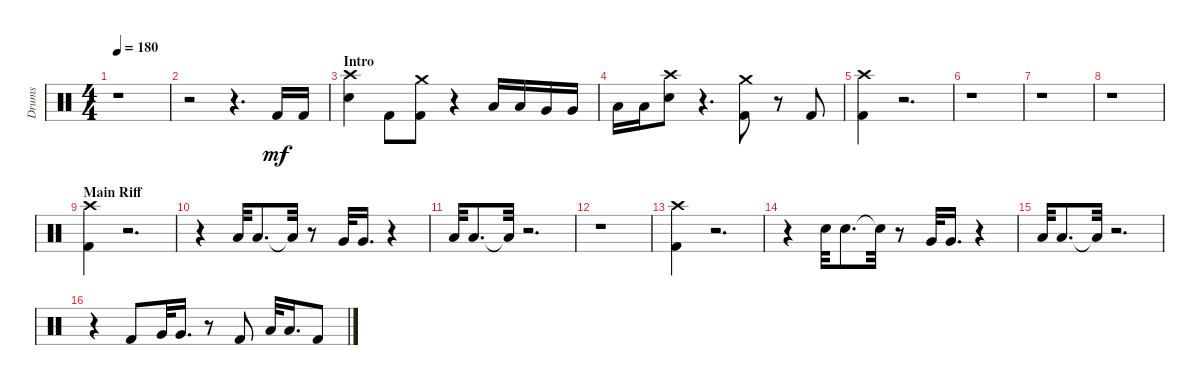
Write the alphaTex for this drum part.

\track ("Drums" "Drums") {instrument percussion}
\staff {score}
\articulation defaults
\ts (4 4)
\tempo 180
\clef neutral
\ks aminor
r.1{dy mf} |
r.2 r.4{d} "Kick (hit) 2".16 "Kick (hit) 2".16 |
\section ("" "Intro")
("Snare (hit) 2" "Crash high (hit)").4 "Kick (hit) 2".8 ("Kick (hit) 2" "Crash medium (hit)").8 r.4 "Low Tom (hit)".16 "Low Tom (hit)".16 "Very Low Tom (hit)".16 "Very Low Tom (hit)".16 |
"Low Floor Tom (hit)".16 "Low Floor Tom (hit)".16 ("Snare (hit) 2" "Crash high (hit)").8 r.4{d} ("Kick (hit) 2" "Crash medium (hit)").8 r.8 "Kick (hit) 2".8 |
("Crash high (hit)" "Kick (hit) 2").4 r.2{d} |
r.1 |
r.1 |
r.1 |
\section ("" "Main Riff")
("Kick (hit) 2" "Crash high (hit)").4 r.2{d} |
r.4 "Low Tom (hit)".32 "Low Tom (hit)".8{d} "Low Tom (hit)"{t}.32 r.8 "Very Low Tom (hit)".32 "Very Low Tom (hit)".16{d} r.4 |
"Low Floor Tom (hit)".32 "Low Floor Tom (hit)".8{d} "Low Floor Tom (hit)"{t}.32 r.2{d} |
r.1 |
("Kick (hit) 2" "Crash high (hit)").4 r.2{d} |
r.4 "Snare (hit) 2".32 "Snare (hit) 2".8{d} "Snare (hit) 2"{t}.32 r.8 "Very Low Tom (hit)".32 "Very Low Tom (hit)".16{d} r.4 |
"Low Floor Tom (hit)".32 "Low Floor Tom (hit)".8{d} "Low Floor Tom (hit)"{t}.32 r.2{d} |
r.4 "Kick (hit) 2".8 "Very Low Tom (hit)".32 "Very Low Tom (hit)".16{d} r.8 "Kick (hit) 2".8 "Low Floor Tom (hit)".32 "Low Floor Tom (hit)".16{d} "Kick (hit) 2".8
